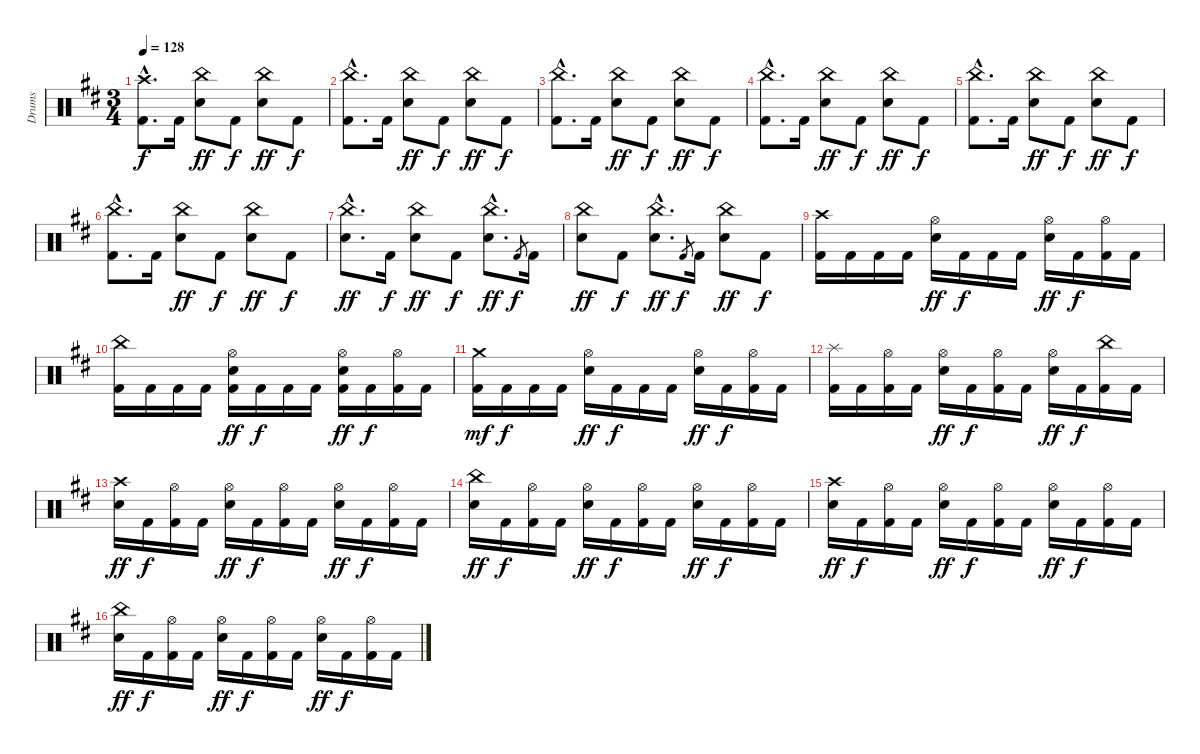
\track ("Drums" "Drums") {instrument percussion}
\staff {score}
\articulation defaults
\ts (3 4)
\tempo 128
\clef neutral
\ks d
("Kick (hit) 2"{hac} "Crash high (hit)"{hac}).8{d dy f} "Kick (hit) 2".16 ("Electric Snare (hit)" "China (hit)").8{dy ff} "Kick (hit) 2".8{dy f} ("Electric Snare (hit)" "China (hit)").8{dy ff} "Kick (hit) 2".8{dy f} |
("Kick (hit) 2"{hac} "China (hit)"{hac}).8{d} "Kick (hit) 2".16 ("Electric Snare (hit)" "China (hit)").8{dy ff} "Kick (hit) 2".8{dy f} ("Electric Snare (hit)" "China (hit)").8{dy ff} "Kick (hit) 2".8{dy f} |
("Kick (hit) 2"{hac} "China (hit)"{hac}).8{d} "Kick (hit) 2".16 ("Electric Snare (hit)" "China (hit)").8{dy ff} "Kick (hit) 2".8{dy f} ("Electric Snare (hit)" "China (hit)").8{dy ff} "Kick (hit) 2".8{dy f} |
("Kick (hit) 2"{hac} "China (hit)"{hac}).8{d} "Kick (hit) 2".16 ("Electric Snare (hit)" "China (hit)").8{dy ff} "Kick (hit) 2".8{dy f} ("Electric Snare (hit)" "China (hit)").8{dy ff} "Kick (hit) 2".8{dy f} |
("Kick (hit) 2"{hac} "China (hit)"{hac}).8{d} "Kick (hit) 2".16 ("Electric Snare (hit)" "China (hit)").8{dy ff} "Kick (hit) 2".8{dy f} ("Electric Snare (hit)" "China (hit)").8{dy ff} "Kick (hit) 2".8{dy f} |
("Kick (hit) 2"{hac} "China (hit)"{hac}).8{d} "Kick (hit) 2".16 ("Electric Snare (hit)" "China (hit)").8{dy ff} "Kick (hit) 2".8{dy f} ("Electric Snare (hit)" "China (hit)").8{dy ff} "Kick (hit) 2".8{dy f} |
("Electric Snare (hit)"{hac} "China (hit)"{hac}).8{d dy ff} "Kick (hit) 2".16{dy f} ("Electric Snare (hit)" "China (hit)").8{dy ff} "Kick (hit) 2".8{dy f} ("Electric Snare (hit)"{hac} "China (hit)"{hac}).8{d dy ff} "Kick (hit) 2".8{gr dy f} "Kick (hit) 2".16 |
("Electric Snare (hit)" "China (hit)").8{dy ff} "Kick (hit) 2".8{dy f} ("Electric Snare (hit)"{hac} "China (hit)"{hac}).8{d dy ff} "Kick (hit) 2".8{gr dy f} "Kick (hit) 2".16 ("Electric Snare (hit)" "China (hit)").8{dy ff} "Kick (hit) 2".8{dy f} |
("Kick (hit) 2" "Crash high (hit)").16 "Kick (hit) 2".16 "Kick (hit) 2".16 "Kick (hit) 2".16 ("Electric Snare (hit)" "Hi-Hat (open)").16{dy ff} "Kick (hit) 2".16{dy f} "Kick (hit) 2".16 "Kick (hit) 2".16 ("Electric Snare (hit)" "Hi-Hat (open)").16{dy ff} "Kick (hit) 2".16{dy f} ("Kick (hit) 2" "Hi-Hat (open)").16 "Kick (hit) 2".16 |
("Kick (hit) 2" "China (hit)").16 "Kick (hit) 2".16 "Kick (hit) 2".16 "Kick (hit) 2".16 ("Kick (hit) 2" "Electric Snare (hit)" "Hi-Hat (open)").16{dy ff} "Kick (hit) 2".16{dy f} "Kick (hit) 2".16 "Kick (hit) 2".16 ("Kick (hit) 2" "Electric Snare (hit)" "Hi-Hat (open)").16{dy ff} "Kick (hit) 2".16{dy f} ("Kick (hit) 2" "Hi-Hat (open)").16 "Kick (hit) 2".16 |
("Kick (hit) 2" "Crash medium (hit)").16{dy mf} "Kick (hit) 2".16{dy f} "Kick (hit) 2".16 "Kick (hit) 2".16 ("Electric Snare (hit)" "Hi-Hat (open)").16{dy ff} "Kick (hit) 2".16{dy f} "Kick (hit) 2".16 "Kick (hit) 2".16 ("Electric Snare (hit)" "Hi-Hat (open)").16{dy ff} "Kick (hit) 2".16{dy f} ("Kick (hit) 2" "Hi-Hat (open)").16 "Kick (hit) 2".16 |
("Kick (hit) 2" "Splash (hit)").16 "Kick (hit) 2".16 ("Kick (hit) 2" "Hi-Hat (open)").16 "Kick (hit) 2".16 ("Electric Snare (hit)" "Hi-Hat (open)").16{dy ff} "Kick (hit) 2".16{dy f} ("Kick (hit) 2" "Hi-Hat (open)").16 "Kick (hit) 2".16 ("Electric Snare (hit)" "Hi-Hat (open)").16{dy ff} "Kick (hit) 2".16{dy f} ("Kick (hit) 2" "China (hit)").16 "Kick (hit) 2".16 |
("Electric Snare (hit)" "Crash high (hit)").16{dy ff} "Kick (hit) 2".16{dy f} ("Kick (hit) 2" "Hi-Hat (open)").16 "Kick (hit) 2".16 ("Electric Snare (hit)" "Hi-Hat (open)").16{dy ff} "Kick (hit) 2".16{dy f} ("Kick (hit) 2" "Hi-Hat (open)").16 "Kick (hit) 2".16 ("Electric Snare (hit)" "Hi-Hat (open)").16{dy ff} "Kick (hit) 2".16{dy f} ("Kick (hit) 2" "Hi-Hat (open)").16 "Kick (hit) 2".16 |
("Electric Snare (hit)" "China (hit)").16{dy ff} "Kick (hit) 2".16{dy f} ("Kick (hit) 2" "Hi-Hat (open)").16 "Kick (hit) 2".16 ("Electric Snare (hit)" "Hi-Hat (open)").16{dy ff} "Kick (hit) 2".16{dy f} ("Kick (hit) 2" "Hi-Hat (open)").16 "Kick (hit) 2".16 ("Electric Snare (hit)" "Hi-Hat (open)").16{dy ff} "Kick (hit) 2".16{dy f} ("Kick (hit) 2" "Hi-Hat (open)").16 "Kick (hit) 2".16 |
("Electric Snare (hit)" "Crash high (hit)").16{dy ff} "Kick (hit) 2".16{dy f} ("Kick (hit) 2" "Hi-Hat (open)").16 "Kick (hit) 2".16 ("Electric Snare (hit)" "Hi-Hat (open)").16{dy ff} "Kick (hit) 2".16{dy f} ("Kick (hit) 2" "Hi-Hat (open)").16 "Kick (hit) 2".16 ("Electric Snare (hit)" "Hi-Hat (open)").16{dy ff} "Kick (hit) 2".16{dy f} ("Kick (hit) 2" "Hi-Hat (open)").16 "Kick (hit) 2".16 |
("Electric Snare (hit)" "China (hit)").16{dy ff} "Kick (hit) 2".16{dy f} ("Kick (hit) 2" "Hi-Hat (open)").16 "Kick (hit) 2".16 ("Electric Snare (hit)" "Hi-Hat (open)").16{dy ff} "Kick (hit) 2".16{dy f} ("Kick (hit) 2" "Hi-Hat (open)").16 "Kick (hit) 2".16 ("Electric Snare (hit)" "Hi-Hat (open)").16{dy ff} "Kick (hit) 2".16{dy f} ("Kick (hit) 2" "Hi-Hat (open)").16 "Kick (hit) 2".16
